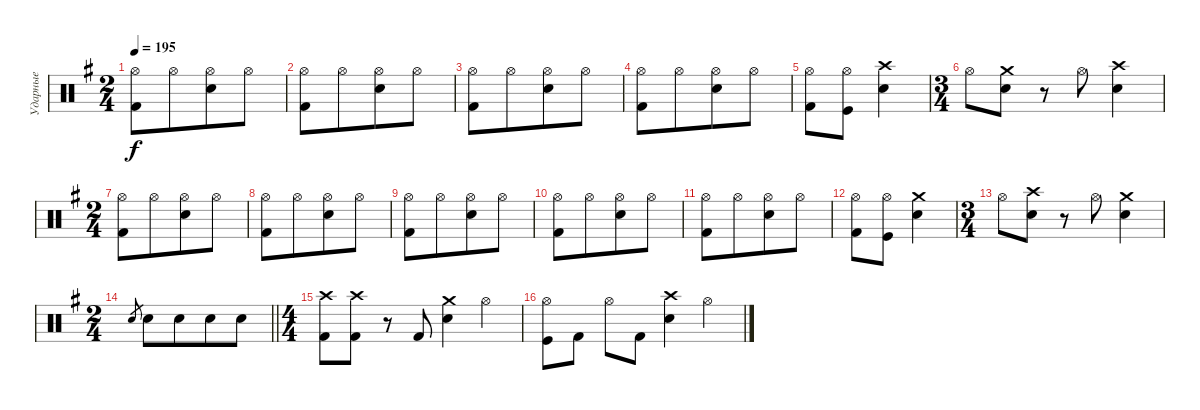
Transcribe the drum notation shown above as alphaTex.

\track ("Ударные" "Ударные") {instrument percussion}
\staff {score}
\articulation defaults
\ts (2 4)
\tempo 195
\clef neutral
\ks eminor
("Kick (hit) 2" "Hi-Hat (open)").8{dy f} "Hi-Hat (open)".8{beam merge} ("Snare (hit) 2" "Hi-Hat (open)").8 "Hi-Hat (open)".8 |
("Kick (hit) 2" "Hi-Hat (open)").8 "Hi-Hat (open)".8{beam merge} ("Snare (hit) 2" "Hi-Hat (open)").8 "Hi-Hat (open)".8 |
("Kick (hit) 2" "Hi-Hat (open)").8 "Hi-Hat (open)".8{beam merge} ("Snare (hit) 2" "Hi-Hat (open)").8 "Hi-Hat (open)".8 |
("Kick (hit) 2" "Hi-Hat (open)").8 "Hi-Hat (open)".8{beam merge} ("Snare (hit) 2" "Hi-Hat (open)").8 "Hi-Hat (open)".8 |
("Kick (hit) 2" "Hi-Hat (open)").8 ("Hi-Hat (open)" "Kick (hit)").8 ("Snare (hit) 2" "Crash high (hit)").4 |
\ts (3 4)
"Hi-Hat (open)".8 ("Snare (hit) 2" "Crash medium (hit)").8 r.8 "Hi-Hat (open)".8 ("Snare (hit) 2" "Crash high (hit)").4 |
\ts (2 4)
("Kick (hit) 2" "Hi-Hat (open)").8 "Hi-Hat (open)".8{beam merge} ("Snare (hit) 2" "Hi-Hat (open)").8 "Hi-Hat (open)".8 |
("Kick (hit) 2" "Hi-Hat (open)").8 "Hi-Hat (open)".8{beam merge} ("Snare (hit) 2" "Hi-Hat (open)").8 "Hi-Hat (open)".8 |
("Kick (hit) 2" "Hi-Hat (open)").8 "Hi-Hat (open)".8{beam merge} ("Snare (hit) 2" "Hi-Hat (open)").8 "Hi-Hat (open)".8 |
("Kick (hit) 2" "Hi-Hat (open)").8 "Hi-Hat (open)".8{beam merge} ("Snare (hit) 2" "Hi-Hat (open)").8 "Hi-Hat (open)".8 |
("Kick (hit) 2" "Hi-Hat (open)").8 "Hi-Hat (open)".8{beam merge} ("Snare (hit) 2" "Hi-Hat (open)").8 "Hi-Hat (open)".8 |
("Kick (hit) 2" "Hi-Hat (open)").8 ("Hi-Hat (open)" "Kick (hit)").8 ("Snare (hit) 2" "Crash medium (hit)").4 |
\ts (3 4)
"Hi-Hat (open)".8 ("Snare (hit) 2" "Crash high (hit)").8 r.8 "Hi-Hat (open)".8 ("Snare (hit) 2" "Crash medium (hit)").4 |
\ts (2 4)
\barLineRight lightlight "Snare (hit) 2".8{gr} "Snare (hit) 2".8 "Snare (hit) 2".8{beam merge} "Snare (hit) 2".8 "Snare (hit) 2".8
|
\ts (4 4)
\section ("" "")
("Kick (hit) 2" "Crash high (hit)").8 ("Kick (hit) 2" "Crash high (hit)").8 r.8 "Kick (hit) 2".8 ("Snare (hit) 2" "Crash medium (hit)").4 "Hi-Hat (open)".4 |
("Kick (hit)" "Hi-Hat (open)").8 "Kick (hit) 2".8 "Hi-Hat (open)".8 "Kick (hit) 2".8 ("Snare (hit) 2" "Crash high (hit)").4 "Hi-Hat (open)".4
